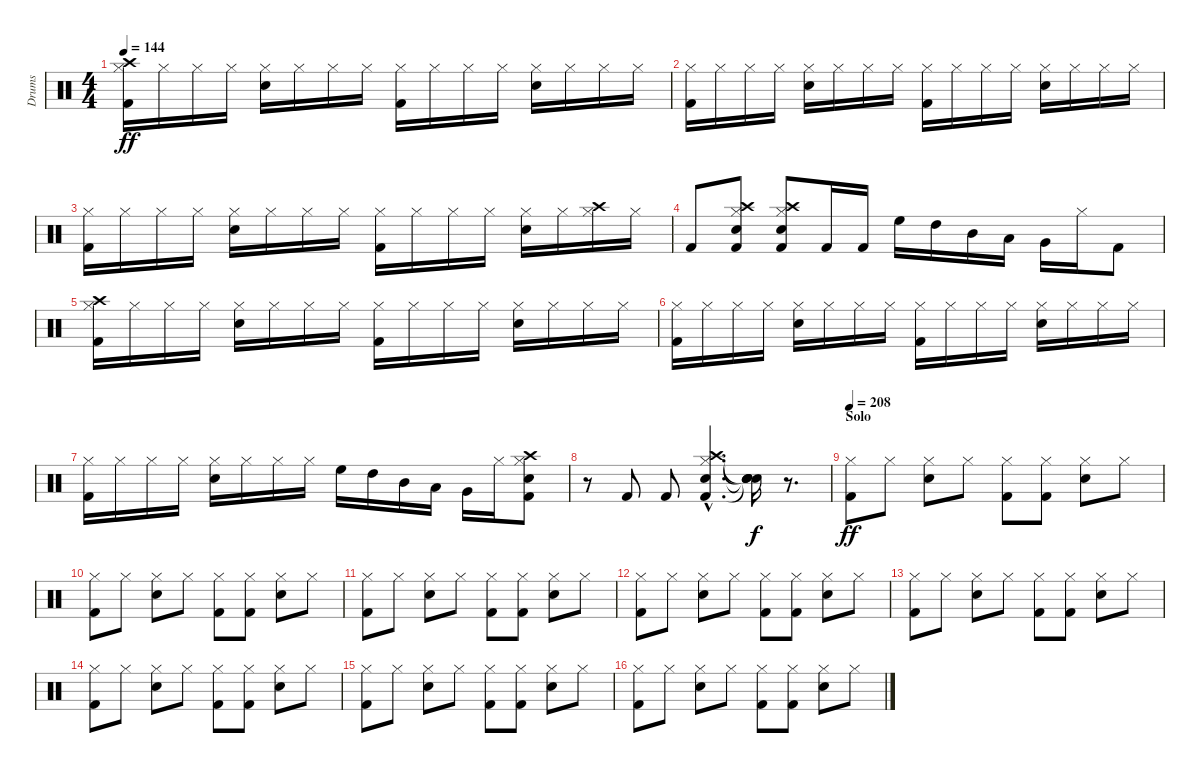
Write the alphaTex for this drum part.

\track ("Drums" "Drums") {instrument percussion}
\staff {score}
\articulation defaults
\ts (4 4)
\tempo 144
\clef neutral
\ks c
("Kick (hit) 2" "Hi-Hat (closed)" "Crash high (hit)").16{dy ff} "Hi-Hat (closed)".16 "Hi-Hat (closed)".16 "Hi-Hat (closed)".16 ("Snare (hit) 2" "Hi-Hat (closed)").16 "Hi-Hat (closed)".16 "Hi-Hat (closed)".16 "Hi-Hat (closed)".16 ("Kick (hit) 2" "Hi-Hat (closed)").16 "Hi-Hat (closed)".16 "Hi-Hat (closed)".16 "Hi-Hat (closed)".16 ("Snare (hit) 2" "Hi-Hat (closed)").16 "Hi-Hat (closed)".16 "Hi-Hat (closed)".16 "Hi-Hat (closed)".16 |
("Kick (hit) 2" "Hi-Hat (closed)").16 "Hi-Hat (closed)".16 "Hi-Hat (closed)".16 "Hi-Hat (closed)".16 ("Snare (hit) 2" "Hi-Hat (closed)").16 "Hi-Hat (closed)".16 "Hi-Hat (closed)".16 "Hi-Hat (closed)".16 ("Kick (hit) 2" "Hi-Hat (closed)").16 "Hi-Hat (closed)".16 "Hi-Hat (closed)".16 "Hi-Hat (closed)".16 ("Snare (hit) 2" "Hi-Hat (closed)").16 "Hi-Hat (closed)".16 "Hi-Hat (closed)".16 "Hi-Hat (closed)".16 |
("Kick (hit) 2" "Hi-Hat (closed)").16 "Hi-Hat (closed)".16 "Hi-Hat (closed)".16 "Hi-Hat (closed)".16 ("Snare (hit) 2" "Hi-Hat (closed)").16 "Hi-Hat (closed)".16 "Hi-Hat (closed)".16 "Hi-Hat (closed)".16 ("Kick (hit) 2" "Hi-Hat (closed)").16 "Hi-Hat (closed)".16 "Hi-Hat (closed)".16 "Hi-Hat (closed)".16 ("Snare (hit) 2" "Hi-Hat (closed)").16 "Hi-Hat (closed)".16 ("Hi-Hat (closed)" "Crash high (hit)").16 "Hi-Hat (closed)".16 |
"Kick (hit) 2".8 ("Kick (hit) 2" "Snare (hit) 2" "Hi-Hat (closed)" "Crash high (hit)").8 ("Kick (hit) 2" "Snare (hit) 2" "Hi-Hat (closed)" "Crash high (hit)").8 "Kick (hit) 2".16 "Kick (hit) 2".16 "High Floor Tom (hit)".16 "High Tom (hit)".16 "Mid Tom (hit)".16 "Low Tom (hit)".16 "Very Low Tom (hit)".16 "Hi-Hat (closed)".16 "Kick (hit) 2".8 |
("Kick (hit) 2" "Hi-Hat (closed)" "Crash high (hit)").16 "Hi-Hat (closed)".16 "Hi-Hat (closed)".16 "Hi-Hat (closed)".16 ("Snare (hit) 2" "Hi-Hat (closed)").16 "Hi-Hat (closed)".16 "Hi-Hat (closed)".16 "Hi-Hat (closed)".16 ("Kick (hit) 2" "Hi-Hat (closed)").16 "Hi-Hat (closed)".16 "Hi-Hat (closed)".16 "Hi-Hat (closed)".16 ("Snare (hit) 2" "Hi-Hat (closed)").16 "Hi-Hat (closed)".16 "Hi-Hat (closed)".16 "Hi-Hat (closed)".16 |
("Kick (hit) 2" "Hi-Hat (closed)").16 "Hi-Hat (closed)".16 "Hi-Hat (closed)".16 "Hi-Hat (closed)".16 ("Snare (hit) 2" "Hi-Hat (closed)").16 "Hi-Hat (closed)".16 "Hi-Hat (closed)".16 "Hi-Hat (closed)".16 ("Kick (hit) 2" "Hi-Hat (closed)").16 "Hi-Hat (closed)".16 "Hi-Hat (closed)".16 "Hi-Hat (closed)".16 ("Snare (hit) 2" "Hi-Hat (closed)").16 "Hi-Hat (closed)".16 "Hi-Hat (closed)".16 "Hi-Hat (closed)".16 |
("Kick (hit) 2" "Hi-Hat (closed)").16 "Hi-Hat (closed)".16 "Hi-Hat (closed)".16 "Hi-Hat (closed)".16 ("Snare (hit) 2" "Hi-Hat (closed)").16 "Hi-Hat (closed)".16 "Hi-Hat (closed)".16 "Hi-Hat (closed)".16 "High Floor Tom (hit)".16 "High Tom (hit)".16 "Mid Tom (hit)".16 "Low Tom (hit)".16 "Very Low Tom (hit)".16 "Hi-Hat (closed)".16 ("Kick (hit) 2" "Snare (hit) 2" "Hi-Hat (closed)" "Crash high (hit)").8 |
r.8 "Kick (hit) 2".8 "Kick (hit) 2".8 ("Kick (hit) 2"{hac} "Snare (hit) 2"{hac} "Hi-Hat (closed)"{hac} "Crash high (hit)"{hac}).4{d} ("Snare (hit)"{t} "Snare (hit)"{t} "Snare (hit)"{t} "Snare (hit)"{t}).16{dy f} r.8{d} |
\section ("" "Solo")
\tempo 204
\tempo 208
("Kick (hit) 2" "Hi-Hat (closed)").8{dy ff} "Hi-Hat (closed)".8 ("Snare (hit) 2" "Hi-Hat (closed)").8 "Hi-Hat (closed)".8 ("Kick (hit) 2" "Hi-Hat (closed)").8 ("Kick (hit) 2" "Hi-Hat (closed)").8 ("Snare (hit) 2" "Hi-Hat (closed)").8 "Hi-Hat (closed)".8 |
("Kick (hit) 2" "Hi-Hat (closed)").8 "Hi-Hat (closed)".8 ("Snare (hit) 2" "Hi-Hat (closed)").8 "Hi-Hat (closed)".8 ("Kick (hit) 2" "Hi-Hat (closed)").8 ("Kick (hit) 2" "Hi-Hat (closed)").8 ("Snare (hit) 2" "Hi-Hat (closed)").8 "Hi-Hat (closed)".8 |
("Kick (hit) 2" "Hi-Hat (closed)").8 "Hi-Hat (closed)".8 ("Snare (hit) 2" "Hi-Hat (closed)").8 "Hi-Hat (closed)".8 ("Kick (hit) 2" "Hi-Hat (closed)").8 ("Kick (hit) 2" "Hi-Hat (closed)").8 ("Snare (hit) 2" "Hi-Hat (closed)").8 "Hi-Hat (closed)".8 |
("Kick (hit) 2" "Hi-Hat (closed)").8 "Hi-Hat (closed)".8 ("Snare (hit) 2" "Hi-Hat (closed)").8 "Hi-Hat (closed)".8 ("Kick (hit) 2" "Hi-Hat (closed)").8 ("Kick (hit) 2" "Hi-Hat (closed)").8 ("Snare (hit) 2" "Hi-Hat (closed)").8 "Hi-Hat (closed)".8 |
("Kick (hit) 2" "Hi-Hat (closed)").8 "Hi-Hat (closed)".8 ("Snare (hit) 2" "Hi-Hat (closed)").8 "Hi-Hat (closed)".8 ("Kick (hit) 2" "Hi-Hat (closed)").8 ("Kick (hit) 2" "Hi-Hat (closed)").8 ("Snare (hit) 2" "Hi-Hat (closed)").8 "Hi-Hat (closed)".8 |
("Kick (hit) 2" "Hi-Hat (closed)").8 "Hi-Hat (closed)".8 ("Snare (hit) 2" "Hi-Hat (closed)").8 "Hi-Hat (closed)".8 ("Kick (hit) 2" "Hi-Hat (closed)").8 ("Kick (hit) 2" "Hi-Hat (closed)").8 ("Snare (hit) 2" "Hi-Hat (closed)").8 "Hi-Hat (closed)".8 |
("Kick (hit) 2" "Hi-Hat (closed)").8 "Hi-Hat (closed)".8 ("Snare (hit) 2" "Hi-Hat (closed)").8 "Hi-Hat (closed)".8 ("Kick (hit) 2" "Hi-Hat (closed)").8 ("Kick (hit) 2" "Hi-Hat (closed)").8 ("Snare (hit) 2" "Hi-Hat (closed)").8 "Hi-Hat (closed)".8 |
("Kick (hit) 2" "Hi-Hat (closed)").8 "Hi-Hat (closed)".8 ("Snare (hit) 2" "Hi-Hat (closed)").8 "Hi-Hat (closed)".8 ("Kick (hit) 2" "Hi-Hat (closed)").8 ("Kick (hit) 2" "Hi-Hat (closed)").8 ("Snare (hit) 2" "Hi-Hat (closed)").8 "Hi-Hat (closed)".8
